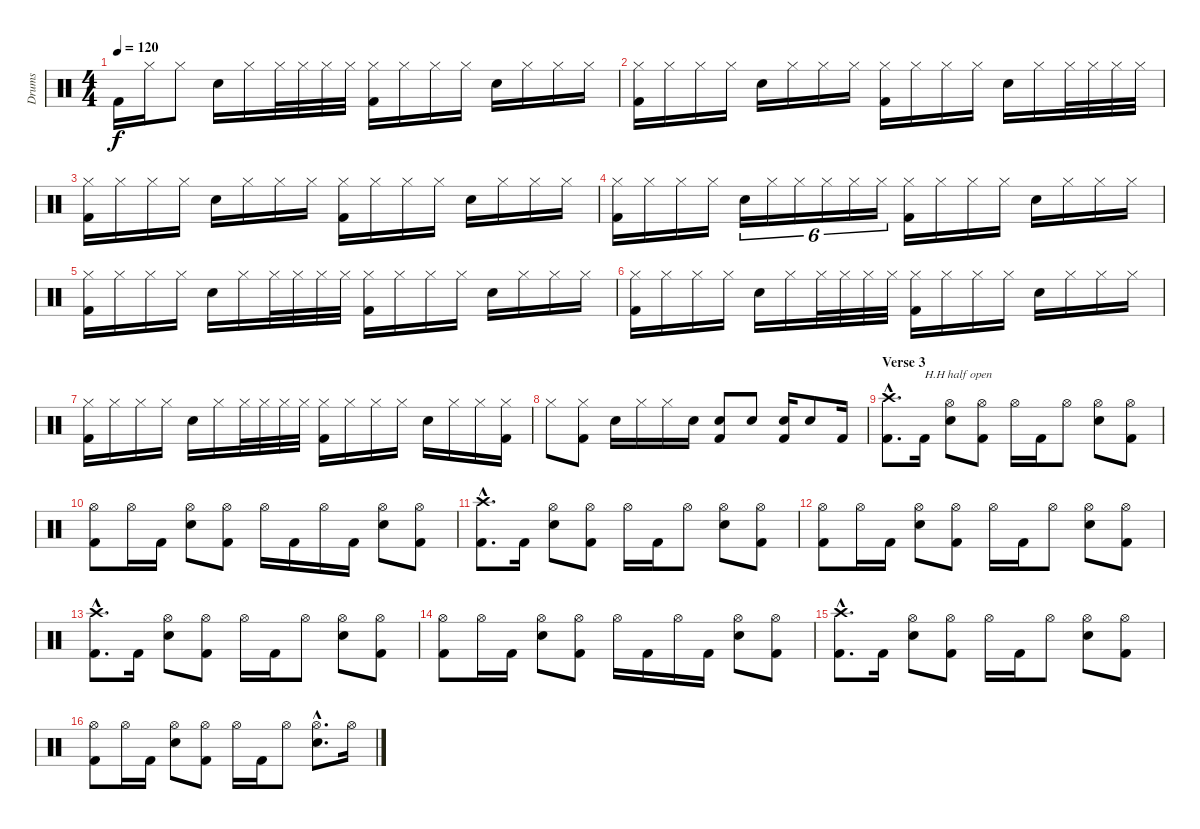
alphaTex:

\track ("Drums" "Drums") {instrument percussion}
\staff {score}
\articulation defaults
\ts (4 4)
\tempo 120
\clef neutral
\ks c "Kick (hit) 2".16{dy f} "Hi-Hat (closed)".16 "Hi-Hat (closed)".8 "Electric Snare (hit)".16 "Hi-Hat (closed)".16 "Hi-Hat (closed)".32 "Hi-Hat (closed)".32 "Hi-Hat (closed)".32 "Hi-Hat (closed)".32
("Hi-Hat (closed)" "Kick (hit) 2").16 "Hi-Hat (closed)".16 "Hi-Hat (closed)".16 "Hi-Hat (closed)".16 "Electric Snare (hit)".16 "Hi-Hat (closed)".16 "Hi-Hat (closed)".16 "Hi-Hat (closed)".16 |
("Hi-Hat (closed)" "Kick (hit) 2").16 "Hi-Hat (closed)".16 "Hi-Hat (closed)".16 "Hi-Hat (closed)".16 "Electric Snare (hit)".16 "Hi-Hat (closed)".16 "Hi-Hat (closed)".16 "Hi-Hat (closed)".16 ("Hi-Hat (closed)" "Kick (hit) 2").16 "Hi-Hat (closed)".16 "Hi-Hat (closed)".16 "Hi-Hat (closed)".16 "Electric Snare (hit)".16 "Hi-Hat (closed)".16 "Hi-Hat (closed)".32 "Hi-Hat (closed)".32 "Hi-Hat (closed)".32 "Hi-Hat (closed)".32 |
("Hi-Hat (closed)" "Kick (hit) 2").16 "Hi-Hat (closed)".16 "Hi-Hat (closed)".16 "Hi-Hat (closed)".16 "Electric Snare (hit)".16 "Hi-Hat (closed)".16 "Hi-Hat (closed)".16 "Hi-Hat (closed)".16 ("Hi-Hat (closed)" "Kick (hit) 2").16 "Hi-Hat (closed)".16 "Hi-Hat (closed)".16 "Hi-Hat (closed)".16 "Electric Snare (hit)".16 "Hi-Hat (closed)".16 "Hi-Hat (closed)".16 "Hi-Hat (closed)".16 |
("Hi-Hat (closed)" "Kick (hit) 2").16 "Hi-Hat (closed)".16 "Hi-Hat (closed)".16 "Hi-Hat (closed)".16 "Electric Snare (hit)".16{tu (6 4)} "Hi-Hat (closed)".16{tu (6 4)} "Hi-Hat (closed)".16{tu (6 4)} "Hi-Hat (closed)".16{tu (6 4)} "Hi-Hat (closed)".16{tu (6 4)} "Hi-Hat (closed)".16{tu (6 4)} ("Hi-Hat (closed)" "Kick (hit) 2").16 "Hi-Hat (closed)".16 "Hi-Hat (closed)".16 "Hi-Hat (closed)".16 "Electric Snare (hit)".16 "Hi-Hat (closed)".16 "Hi-Hat (closed)".16 "Hi-Hat (closed)".16 |
("Hi-Hat (closed)" "Kick (hit) 2").16 "Hi-Hat (closed)".16 "Hi-Hat (closed)".16 "Hi-Hat (closed)".16 "Electric Snare (hit)".16 "Hi-Hat (closed)".16 "Hi-Hat (closed)".32 "Hi-Hat (closed)".32 "Hi-Hat (closed)".32 "Hi-Hat (closed)".32 ("Hi-Hat (closed)" "Kick (hit) 2").16 "Hi-Hat (closed)".16 "Hi-Hat (closed)".16 "Hi-Hat (closed)".16 "Electric Snare (hit)".16 "Hi-Hat (closed)".16 "Hi-Hat (closed)".16 "Hi-Hat (closed)".16 |
("Hi-Hat (closed)" "Kick (hit) 2").16 "Hi-Hat (closed)".16 "Hi-Hat (closed)".16 "Hi-Hat (closed)".16 "Electric Snare (hit)".16 "Hi-Hat (closed)".16 "Hi-Hat (closed)".32 "Hi-Hat (closed)".32 "Hi-Hat (closed)".32 "Hi-Hat (closed)".32 ("Hi-Hat (closed)" "Kick (hit) 2").16 "Hi-Hat (closed)".16 "Hi-Hat (closed)".16 "Hi-Hat (closed)".16 "Electric Snare (hit)".16 "Hi-Hat (closed)".16 "Hi-Hat (closed)".16 "Hi-Hat (closed)".16 |
("Hi-Hat (closed)" "Kick (hit) 2").16 "Hi-Hat (closed)".16 "Hi-Hat (closed)".16 "Hi-Hat (closed)".16 "Electric Snare (hit)".16 "Hi-Hat (closed)".16 "Hi-Hat (closed)".32 "Hi-Hat (closed)".32 "Hi-Hat (closed)".32 "Hi-Hat (closed)".32 ("Hi-Hat (closed)" "Kick (hit) 2").16 "Hi-Hat (closed)".16 "Hi-Hat (closed)".16 "Hi-Hat (closed)".16 "Electric Snare (hit)".16 "Hi-Hat (closed)".16 "Hi-Hat (closed)".16 ("Hi-Hat (closed)" "Kick (hit) 2").16 |
"Hi-Hat (closed)".8 ("Hi-Hat (closed)" "Kick (hit) 2").8 "Electric Snare (hit)".16 "Hi-Hat (closed)".16 "Hi-Hat (closed)".16 "Electric Snare (hit)".16 ("Electric Snare (hit)" "Kick (hit) 2").8 "Electric Snare (hit)".8 ("Electric Snare (hit)" "Kick (hit) 2").16 "Electric Snare (hit)".8 "Kick (hit) 2".16 |
\section ("" "Verse 3")
("Crash high (hit)"{hac} "Kick (hit) 2"{hac}).8{d} "Kick (hit) 2".16{txt "H.H half open"} ("Hi-Hat (open)" "Electric Snare (hit)").8 ("Hi-Hat (open)" "Kick (hit) 2").8 "Hi-Hat (open)".16 "Kick (hit) 2".16 "Hi-Hat (open)".8 ("Hi-Hat (open)" "Electric Snare (hit)").8 ("Hi-Hat (open)" "Kick (hit) 2").8 |
("Hi-Hat (open)" "Kick (hit) 2").8 "Hi-Hat (open)".16 "Kick (hit) 2".16 ("Hi-Hat (open)" "Electric Snare (hit)").8 ("Hi-Hat (open)" "Kick (hit) 2").8 "Hi-Hat (open)".16 "Kick (hit) 2".16 "Hi-Hat (open)".16 "Kick (hit) 2".16 ("Hi-Hat (open)" "Electric Snare (hit)").8 ("Hi-Hat (open)" "Kick (hit) 2").8 |
("Crash high (hit)"{hac} "Kick (hit) 2"{hac}).8{d} "Kick (hit) 2".16 ("Hi-Hat (open)" "Electric Snare (hit)").8 ("Hi-Hat (open)" "Kick (hit) 2").8 "Hi-Hat (open)".16 "Kick (hit) 2".16 "Hi-Hat (open)".8 ("Hi-Hat (open)" "Electric Snare (hit)").8 ("Hi-Hat (open)" "Kick (hit) 2").8 |
("Hi-Hat (open)" "Kick (hit) 2").8 "Hi-Hat (open)".16 "Kick (hit) 2".16 ("Hi-Hat (open)" "Electric Snare (hit)").8 ("Hi-Hat (open)" "Kick (hit) 2").8 "Hi-Hat (open)".16 "Kick (hit) 2".16 "Hi-Hat (open)".8 ("Hi-Hat (open)" "Electric Snare (hit)").8 ("Hi-Hat (open)" "Kick (hit) 2").8 |
("Crash high (hit)"{hac} "Kick (hit) 2"{hac}).8{d} "Kick (hit) 2".16 ("Hi-Hat (open)" "Electric Snare (hit)").8 ("Hi-Hat (open)" "Kick (hit) 2").8 "Hi-Hat (open)".16 "Kick (hit) 2".16 "Hi-Hat (open)".8 ("Hi-Hat (open)" "Electric Snare (hit)").8 ("Hi-Hat (open)" "Kick (hit) 2").8 |
("Hi-Hat (open)" "Kick (hit) 2").8 "Hi-Hat (open)".16 "Kick (hit) 2".16 ("Hi-Hat (open)" "Electric Snare (hit)").8 ("Hi-Hat (open)" "Kick (hit) 2").8 "Hi-Hat (open)".16 "Kick (hit) 2".16 "Hi-Hat (open)".16 "Kick (hit) 2".16 ("Hi-Hat (open)" "Electric Snare (hit)").8 ("Hi-Hat (open)" "Kick (hit) 2").8 |
("Crash high (hit)"{hac} "Kick (hit) 2"{hac}).8{d} "Kick (hit) 2".16 ("Hi-Hat (open)" "Electric Snare (hit)").8 ("Hi-Hat (open)" "Kick (hit) 2").8 "Hi-Hat (open)".16 "Kick (hit) 2".16 "Hi-Hat (open)".8 ("Hi-Hat (open)" "Electric Snare (hit)").8 ("Hi-Hat (open)" "Kick (hit) 2").8 |
("Hi-Hat (open)" "Kick (hit) 2").8 "Hi-Hat (open)".16 "Kick (hit) 2".16 ("Hi-Hat (open)" "Electric Snare (hit)").8 ("Hi-Hat (open)" "Kick (hit) 2").8 "Hi-Hat (open)".16 "Kick (hit) 2".16 "Hi-Hat (open)".8 ("Hi-Hat (open)"{hac} "Electric Snare (hit)"{hac}).8{d} "Hi-Hat (open)".16
